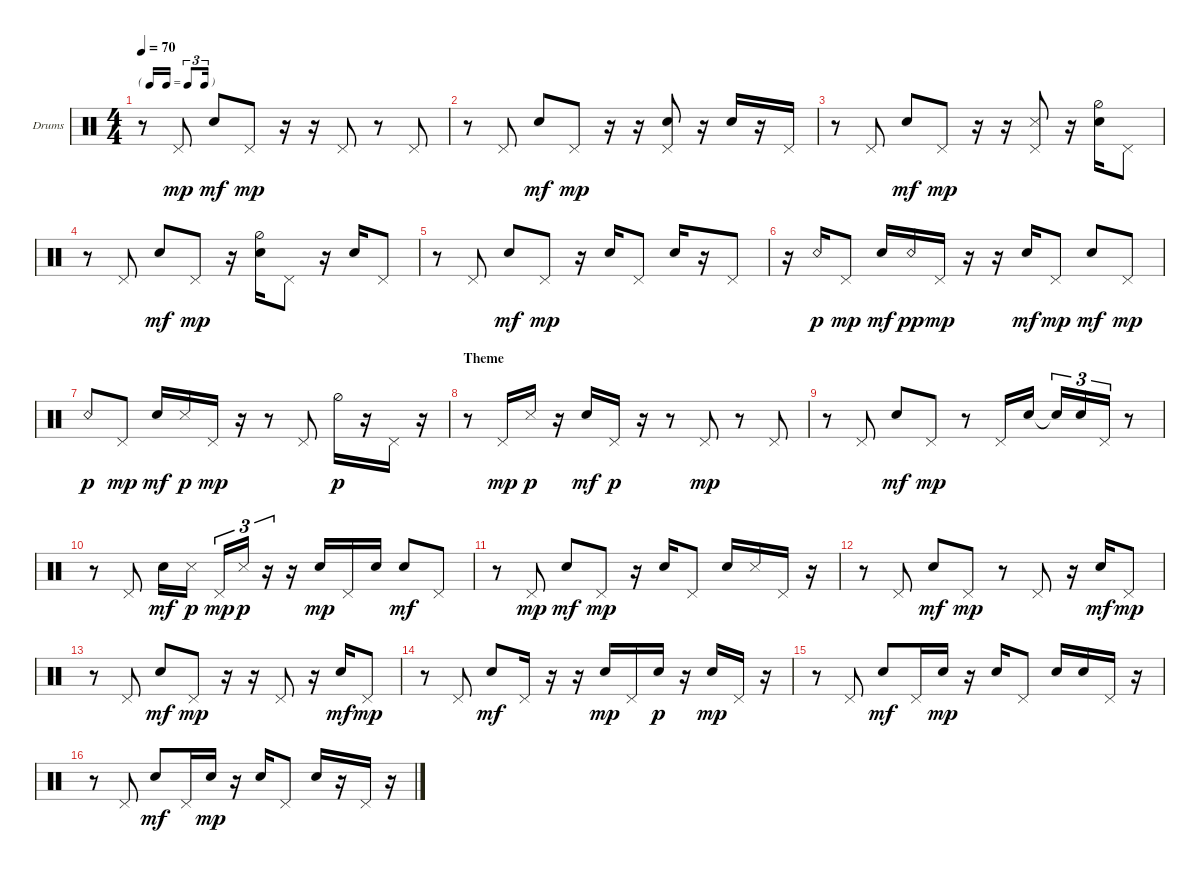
\bracketExtendMode groupsimilarinstruments
\firstSystemTrackNameOrientation horizontal
\otherSystemsTrackNameOrientation horizontal
\track ("Snare" "Drums") {instrument percussion}
\staff {score}
\articulation defaults
\ts (4 4)
\tf triplet16th
\tempo 70
\clef neutral
\ks aminor
r.8{dy mp} "Pedal Hi-Hat (hit)".8 "Snare (hit) 2".8{dy mf} "Pedal Hi-Hat (hit)".8{dy mp} r.16 r.16 "Pedal Hi-Hat (hit)".8 r.8 "Pedal Hi-Hat (hit)".8 |
r.8 "Pedal Hi-Hat (hit)".8 "Snare (hit) 2".8{dy mf} "Pedal Hi-Hat (hit)".8{dy mp} r.16 r.16 ("Pedal Hi-Hat (hit)" "Snare (hit) 2").8 r.16 "Snare (hit) 2".16 r.16 "Pedal Hi-Hat (hit)".16 |
r.8 "Pedal Hi-Hat (hit)".8 "Snare (hit) 2".8{dy mf} "Pedal Hi-Hat (hit)".8{dy mp} r.16 r.16 ("Pedal Hi-Hat (hit)" "Snare (side stick) 3").8 r.16 ("Hi-Hat (half)" "Snare (hit) 2").16 "Pedal Hi-Hat (hit)".8 |
r.8 "Pedal Hi-Hat (hit)".8 "Snare (hit) 2".8{dy mf} "Pedal Hi-Hat (hit)".8{dy mp} r.16 ("Snare (hit) 2" "Hi-Hat (half)").16 "Pedal Hi-Hat (hit)".8 r.16 "Snare (hit) 2".16 "Pedal Hi-Hat (hit)".8 |
r.8 "Pedal Hi-Hat (hit)".8 "Snare (hit) 2".8{dy mf} "Pedal Hi-Hat (hit)".8{dy mp} r.16 "Snare (hit) 2".16 "Pedal Hi-Hat (hit)".8 "Snare (hit) 2".16 r.16 "Pedal Hi-Hat (hit)".8 |
r.16 "Snare (rim shot)".16{dy p} "Pedal Hi-Hat (hit)".8{dy mp} "Snare (hit) 2".16{dy mf} "Snare (rim shot)".16{dy pp} "Pedal Hi-Hat (hit)".16{dy mp} r.16 r.16 "Snare (hit) 2".16{dy mf} "Pedal Hi-Hat (hit)".8{dy mp} "Snare (hit) 2".8{dy mf} "Pedal Hi-Hat (hit)".8{dy mp} |
"Snare (rim shot)".8{dy p} "Pedal Hi-Hat (hit)".8{dy mp} "Snare (hit) 2".16{dy mf} "Snare (side stick) 3".16{dy p} "Pedal Hi-Hat (hit)".16{dy mp} r.16 r.8 "Pedal Hi-Hat (hit)".8 "Hi-Hat (half)".16{dy p} r.16 "Pedal Hi-Hat (hit)".16 r.16 |
\section ("" "Theme")
r.8 "Pedal Hi-Hat (hit)".16{dy mp} "Snare (side stick) 3".16{dy p} r.16 "Snare (hit) 2".16{dy mf} "Pedal Hi-Hat (hit)".16{dy p} r.16 r.8 "Pedal Hi-Hat (hit)".8{dy mp} r.8 "Pedal Hi-Hat (hit)".8 |
r.8 "Pedal Hi-Hat (hit)".8 "Snare (hit) 2".8{dy mf} "Pedal Hi-Hat (hit)".8{dy mp} r.8 "Pedal Hi-Hat (hit)".16 "Snare (hit) 2".16 "Snare (hit) 2"{t}.16{tu (3 2)} "Snare (hit) 2".16{tu (3 2)} "Pedal Hi-Hat (hit)".16{tu (3 2)} r.8 |
r.8 "Pedal Hi-Hat (hit)".8 "Snare (hit) 2".16{dy mf} "Snare (side stick) 3".16{dy p} "Pedal Hi-Hat (hit)".16{tu (3 2) dy mp} "Snare (side stick) 3".16{tu (3 2) dy p} r.16{tu (3 2)} r.16 "Snare (hit) 2".16{dy mp} "Pedal Hi-Hat (hit)".16 "Snare (hit) 2".16 "Snare (hit) 2".8{dy mf} "Pedal Hi-Hat (hit)".8 |
r.8 "Pedal Hi-Hat (hit)".8{dy mp} "Snare (hit) 2".8{dy mf} "Pedal Hi-Hat (hit)".8{dy mp} r.16 "Snare (hit) 2".16 "Pedal Hi-Hat (hit)".8 "Snare (hit) 2".16 "Snare (side stick) 3".16 "Pedal Hi-Hat (hit)".16 r.16 |
r.8 "Pedal Hi-Hat (hit)".8 "Snare (hit) 2".8{dy mf} "Pedal Hi-Hat (hit)".8{dy mp} r.8 "Pedal Hi-Hat (hit)".8 r.16 "Snare (hit) 2".16{dy mf} "Pedal Hi-Hat (hit)".8{dy mp} |
r.8 "Pedal Hi-Hat (hit)".8 "Snare (hit) 2".8{dy mf} "Pedal Hi-Hat (hit)".8{dy mp} r.16 r.16 "Pedal Hi-Hat (hit)".8 r.16 "Snare (hit) 2".16{dy mf} "Pedal Hi-Hat (hit)".8{dy mp} |
r.8 "Pedal Hi-Hat (hit)".8 "Snare (hit) 2".8{dy mf} "Pedal Hi-Hat (hit)".16 r.16 r.16 "Snare (hit) 2".16{dy mp} "Pedal Hi-Hat (hit)".16 "Snare (hit) 2".16{dy p} r.16 "Snare (hit) 2".16{dy mp} "Pedal Hi-Hat (hit)".16 r.16 |
r.8 "Pedal Hi-Hat (hit)".8 "Snare (hit) 2".8{dy mf} "Pedal Hi-Hat (hit)".16 "Snare (hit) 2".16{dy mp} r.16 "Snare (hit) 2".16 "Pedal Hi-Hat (hit)".8 "Snare (hit) 2".16 "Snare (hit) 2".16 "Pedal Hi-Hat (hit)".16 r.16 |
r.8 "Pedal Hi-Hat (hit)".8 "Snare (hit) 2".8{dy mf} "Pedal Hi-Hat (hit)".16 "Snare (hit) 2".16{dy mp} r.16 "Snare (hit) 2".16 "Pedal Hi-Hat (hit)".8 "Snare (hit) 2".16 r.16 "Pedal Hi-Hat (hit)".16 r.16
